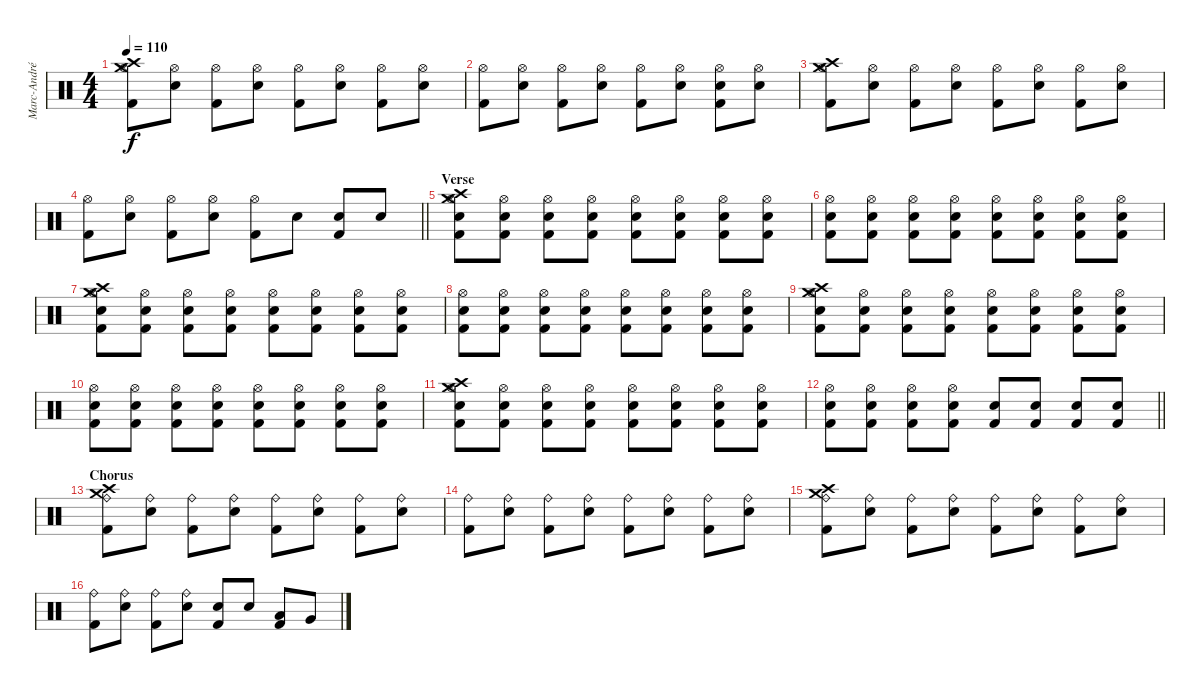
\track ("Marc-André Barabé" "Marc-André") {instrument percussion}
\staff {score}
\articulation defaults
\ts (4 4)
\tempo 110
\clef neutral
\ks c
("Crash high (hit)" "Crash medium (hit)" "Hi-Hat (open)" "Kick (hit) 2"{tr (2 32)}).8{dy f} ("Hi-Hat (open)" "Electric Snare (hit)").8 ("Hi-Hat (open)" "Kick (hit) 2"{tr (2 32)}).8 ("Hi-Hat (open)" "Electric Snare (hit)").8 ("Hi-Hat (open)" "Kick (hit) 2"{tr (2 32)}).8 ("Hi-Hat (open)" "Electric Snare (hit)").8 ("Hi-Hat (open)" "Kick (hit) 2"{tr (2 32)}).8 ("Hi-Hat (open)" "Electric Snare (hit)").8 |
("Hi-Hat (open)" "Kick (hit) 2"{tr (2 32)}).8 ("Hi-Hat (open)" "Electric Snare (hit)").8 ("Hi-Hat (open)" "Kick (hit) 2"{tr (2 32)}).8 ("Hi-Hat (open)" "Electric Snare (hit)").8 ("Hi-Hat (open)" "Kick (hit) 2"{tr (2 32)}).8 ("Hi-Hat (open)" "Electric Snare (hit)").8 ("Hi-Hat (open)" "Electric Snare (hit)" "Kick (hit) 2"{tr (2 32)}).8 ("Hi-Hat (open)" "Electric Snare (hit)").8 |
("Crash high (hit)" "Crash medium (hit)" "Hi-Hat (open)" "Kick (hit) 2"{tr (2 32)}).8 ("Hi-Hat (open)" "Electric Snare (hit)").8 ("Hi-Hat (open)" "Kick (hit) 2"{tr (2 32)}).8 ("Hi-Hat (open)" "Electric Snare (hit)").8 ("Hi-Hat (open)" "Kick (hit) 2"{tr (2 32)}).8 ("Hi-Hat (open)" "Electric Snare (hit)").8 ("Hi-Hat (open)" "Kick (hit) 2"{tr (2 32)}).8 ("Hi-Hat (open)" "Electric Snare (hit)").8 |
\barLineRight lightlight
("Hi-Hat (open)" "Kick (hit) 2"{tr (2 32)}).8 ("Hi-Hat (open)" "Electric Snare (hit)").8 ("Hi-Hat (open)" "Kick (hit) 2"{tr (2 32)}).8 ("Hi-Hat (open)" "Electric Snare (hit)").8 ("Hi-Hat (open)" "Kick (hit) 2"{tr (2 32)}).8 "Electric Snare (hit)"{tr (40 32)}.8 ("Electric Snare (hit)"{tr (40 32)} "Kick (hit) 2"{tr (2 32)}).8 "Electric Snare (hit)"{tr (40 32)}.8 |
\section ("" "Verse")
("Crash high (hit)" "Crash medium (hit)" "Hi-Hat (open)" "Electric Snare (hit)" "Kick (hit) 2"{tr (36 32)}).8 ("Hi-Hat (open)" "Electric Snare (hit)" "Kick (hit) 2"{tr (36 32)}).8 ("Hi-Hat (open)" "Electric Snare (hit)" "Kick (hit) 2"{tr (36 32)}).8 ("Hi-Hat (open)" "Electric Snare (hit)" "Kick (hit) 2"{tr (36 32)}).8 ("Hi-Hat (open)" "Electric Snare (hit)" "Kick (hit) 2"{tr (36 32)}).8 ("Hi-Hat (open)" "Electric Snare (hit)" "Kick (hit) 2"{tr (36 32)}).8 ("Hi-Hat (open)" "Electric Snare (hit)" "Kick (hit) 2"{tr (36 32)}).8 ("Hi-Hat (open)" "Electric Snare (hit)" "Kick (hit) 2"{tr (36 32)}).8 |
("Hi-Hat (open)" "Electric Snare (hit)" "Kick (hit) 2"{tr (36 32)}).8 ("Hi-Hat (open)" "Electric Snare (hit)" "Kick (hit) 2"{tr (36 32)}).8 ("Hi-Hat (open)" "Electric Snare (hit)" "Kick (hit) 2"{tr (36 32)}).8 ("Hi-Hat (open)" "Electric Snare (hit)" "Kick (hit) 2"{tr (36 32)}).8 ("Hi-Hat (open)" "Electric Snare (hit)" "Kick (hit) 2"{tr (36 32)}).8 ("Hi-Hat (open)" "Electric Snare (hit)" "Kick (hit) 2"{tr (36 32)}).8 ("Hi-Hat (open)" "Electric Snare (hit)" "Kick (hit) 2"{tr (36 32)}).8 ("Hi-Hat (open)" "Electric Snare (hit)" "Kick (hit) 2"{tr (36 32)}).8 |
("Crash high (hit)" "Crash medium (hit)" "Hi-Hat (open)" "Electric Snare (hit)" "Kick (hit) 2"{tr (36 32)}).8 ("Hi-Hat (open)" "Electric Snare (hit)" "Kick (hit) 2"{tr (36 32)}).8 ("Hi-Hat (open)" "Electric Snare (hit)" "Kick (hit) 2"{tr (36 32)}).8 ("Hi-Hat (open)" "Electric Snare (hit)" "Kick (hit) 2"{tr (36 32)}).8 ("Hi-Hat (open)" "Electric Snare (hit)" "Kick (hit) 2"{tr (36 32)}).8 ("Hi-Hat (open)" "Electric Snare (hit)" "Kick (hit) 2"{tr (36 32)}).8 ("Hi-Hat (open)" "Electric Snare (hit)" "Kick (hit) 2"{tr (36 32)}).8 ("Hi-Hat (open)" "Electric Snare (hit)" "Kick (hit) 2"{tr (36 32)}).8 |
("Hi-Hat (open)" "Electric Snare (hit)" "Kick (hit) 2"{tr (36 32)}).8 ("Hi-Hat (open)" "Electric Snare (hit)" "Kick (hit) 2"{tr (36 32)}).8 ("Hi-Hat (open)" "Electric Snare (hit)" "Kick (hit) 2"{tr (36 32)}).8 ("Hi-Hat (open)" "Electric Snare (hit)" "Kick (hit) 2"{tr (36 32)}).8 ("Hi-Hat (open)" "Electric Snare (hit)" "Kick (hit) 2"{tr (36 32)}).8 ("Hi-Hat (open)" "Electric Snare (hit)" "Kick (hit) 2"{tr (36 32)}).8 ("Hi-Hat (open)" "Electric Snare (hit)" "Kick (hit) 2"{tr (36 32)}).8 ("Hi-Hat (open)" "Electric Snare (hit)" "Kick (hit) 2"{tr (36 32)}).8 |
("Crash high (hit)" "Crash medium (hit)" "Hi-Hat (open)" "Electric Snare (hit)" "Kick (hit) 2"{tr (36 32)}).8 ("Hi-Hat (open)" "Electric Snare (hit)" "Kick (hit) 2"{tr (36 32)}).8 ("Hi-Hat (open)" "Electric Snare (hit)" "Kick (hit) 2"{tr (36 32)}).8 ("Hi-Hat (open)" "Electric Snare (hit)" "Kick (hit) 2"{tr (36 32)}).8 ("Hi-Hat (open)" "Electric Snare (hit)" "Kick (hit) 2"{tr (36 32)}).8 ("Hi-Hat (open)" "Electric Snare (hit)" "Kick (hit) 2"{tr (36 32)}).8 ("Hi-Hat (open)" "Electric Snare (hit)" "Kick (hit) 2"{tr (36 32)}).8 ("Hi-Hat (open)" "Electric Snare (hit)" "Kick (hit) 2"{tr (36 32)}).8 |
("Hi-Hat (open)" "Electric Snare (hit)" "Kick (hit) 2"{tr (36 32)}).8 ("Hi-Hat (open)" "Electric Snare (hit)" "Kick (hit) 2"{tr (36 32)}).8 ("Hi-Hat (open)" "Electric Snare (hit)" "Kick (hit) 2"{tr (36 32)}).8 ("Hi-Hat (open)" "Electric Snare (hit)" "Kick (hit) 2"{tr (36 32)}).8 ("Hi-Hat (open)" "Electric Snare (hit)" "Kick (hit) 2"{tr (36 32)}).8 ("Hi-Hat (open)" "Electric Snare (hit)" "Kick (hit) 2"{tr (36 32)}).8 ("Hi-Hat (open)" "Electric Snare (hit)" "Kick (hit) 2"{tr (36 32)}).8 ("Hi-Hat (open)" "Electric Snare (hit)" "Kick (hit) 2"{tr (36 32)}).8 |
("Crash high (hit)" "Crash medium (hit)" "Hi-Hat (open)" "Electric Snare (hit)" "Kick (hit) 2"{tr (36 32)}).8 ("Hi-Hat (open)" "Electric Snare (hit)" "Kick (hit) 2"{tr (36 32)}).8 ("Hi-Hat (open)" "Electric Snare (hit)" "Kick (hit) 2"{tr (36 32)}).8 ("Hi-Hat (open)" "Electric Snare (hit)" "Kick (hit) 2"{tr (36 32)}).8 ("Hi-Hat (open)" "Electric Snare (hit)" "Kick (hit) 2"{tr (36 32)}).8 ("Hi-Hat (open)" "Electric Snare (hit)" "Kick (hit) 2"{tr (36 32)}).8 ("Hi-Hat (open)" "Electric Snare (hit)" "Kick (hit) 2"{tr (36 32)}).8 ("Hi-Hat (open)" "Electric Snare (hit)" "Kick (hit) 2"{tr (36 32)}).8 |
\barLineRight lightlight
("Hi-Hat (open)" "Electric Snare (hit)" "Kick (hit) 2"{tr (36 32)}).8 ("Hi-Hat (open)" "Electric Snare (hit)" "Kick (hit) 2"{tr (36 32)}).8 ("Hi-Hat (open)" "Electric Snare (hit)" "Kick (hit) 2"{tr (36 32)}).8 ("Hi-Hat (open)" "Electric Snare (hit)" "Kick (hit) 2"{tr (36 32)}).8 ("Electric Snare (hit)"{tr (40 32)} "Kick (hit) 2").8 ("Electric Snare (hit)"{tr (40 32)} "Kick (hit) 2").8 ("Electric Snare (hit)"{tr (40 32)} "Kick (hit) 2").8 ("Electric Snare (hit)"{tr (40 32)} "Kick (hit) 2").8 |
\section ("" "Chorus")
("Crash high (hit)" "Crash medium (hit)" "Ride (bell)" "Kick (hit) 2"{tr (2 32)}).8 ("Ride (bell)" "Electric Snare (hit)").8 ("Ride (bell)" "Kick (hit) 2"{tr (2 32)}).8 ("Ride (bell)" "Electric Snare (hit)").8 ("Ride (bell)" "Kick (hit) 2"{tr (2 32)}).8 ("Ride (bell)" "Electric Snare (hit)").8 ("Ride (bell)" "Kick (hit) 2"{tr (2 32)}).8 ("Ride (bell)" "Electric Snare (hit)").8 |
("Ride (bell)" "Kick (hit) 2"{tr (2 32)}).8 ("Ride (bell)" "Electric Snare (hit)").8 ("Ride (bell)" "Kick (hit) 2"{tr (2 32)}).8 ("Ride (bell)" "Electric Snare (hit)").8 ("Ride (bell)" "Kick (hit) 2"{tr (2 32)}).8 ("Ride (bell)" "Electric Snare (hit)").8 ("Ride (bell)" "Kick (hit) 2"{tr (2 32)}).8 ("Ride (bell)" "Electric Snare (hit)").8 |
("Crash high (hit)" "Crash medium (hit)" "Ride (bell)" "Kick (hit) 2"{tr (2 32)}).8 ("Ride (bell)" "Electric Snare (hit)").8 ("Ride (bell)" "Kick (hit) 2"{tr (2 32)}).8 ("Ride (bell)" "Electric Snare (hit)").8 ("Ride (bell)" "Kick (hit) 2"{tr (2 32)}).8 ("Ride (bell)" "Electric Snare (hit)").8 ("Ride (bell)" "Kick (hit) 2"{tr (2 32)}).8 ("Ride (bell)" "Electric Snare (hit)").8 |
("Ride (bell)" "Kick (hit) 2"{tr (2 32)}).8 ("Ride (bell)" "Electric Snare (hit)").8 ("Ride (bell)" "Kick (hit) 2"{tr (2 32)}).8 ("Ride (bell)" "Electric Snare (hit)").8 ("Electric Snare (hit)"{tr (40 32)} "Kick (hit) 2"{tr (2 32)}).8 "Electric Snare (hit)"{tr (40 32)}.8 ("Low Tom (hit)"{tr (45 32)} "Kick (hit) 2"{tr (2 32)}).8 "Very Low Tom (hit)"{tr (43 32)}.8
